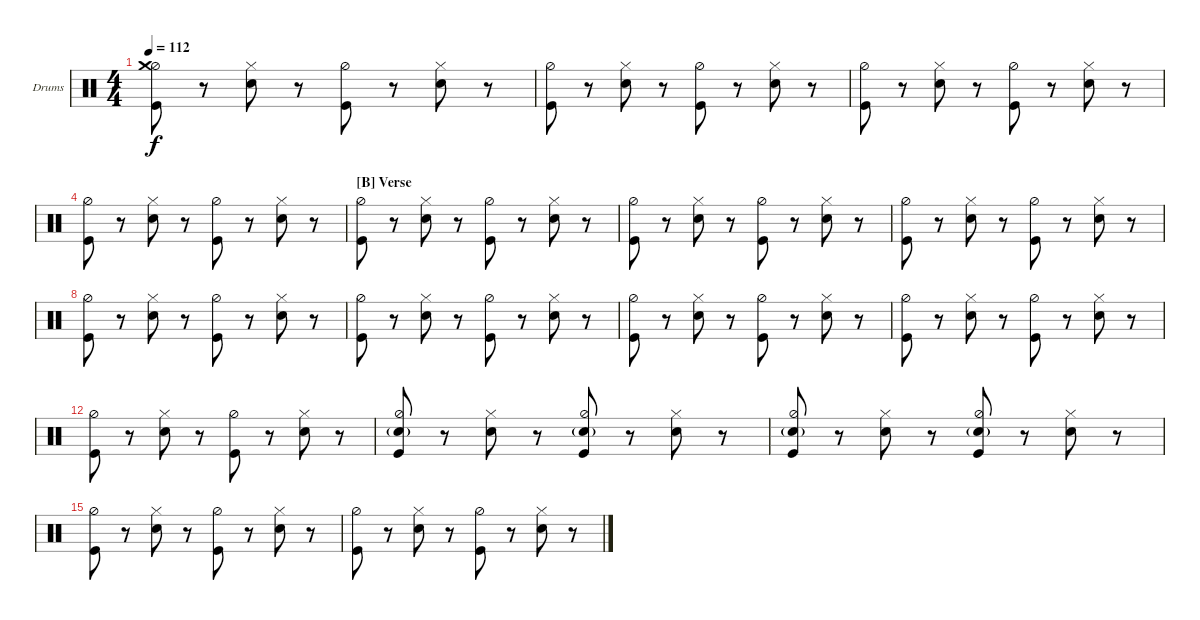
\bracketExtendMode nobrackets
\firstSystemTrackNameOrientation horizontal
\otherSystemsTrackNameOrientation horizontal
\defaultBarNumberDisplay FirstOfSystem
\track ("Drumkit" "Drums") {instrument percussion}
\staff {score}
\articulation defaults
\ts (4 4)
\tempo 112
\clef neutral
\ks c
("Kick (hit)" "Hi-Hat (half)" "Crash medium (hit)").8{dy f} r.8 ("Snare (hit) 2" "Hi-Hat (closed)").8 r.8 ("Kick (hit)" "Hi-Hat (half)").8 r.8 ("Snare (hit) 2" "Hi-Hat (closed)").8 r.8 |
("Kick (hit)" "Hi-Hat (half)").8 r.8 ("Snare (hit) 2" "Hi-Hat (closed)").8 r.8 ("Kick (hit)" "Hi-Hat (half)").8 r.8 ("Snare (hit) 2" "Hi-Hat (closed)").8 r.8 |
("Kick (hit)" "Hi-Hat (half)").8 r.8 ("Snare (hit) 2" "Hi-Hat (closed)").8 r.8 ("Kick (hit)" "Hi-Hat (half)").8 r.8 ("Snare (hit) 2" "Hi-Hat (closed)").8 r.8 |
("Kick (hit)" "Hi-Hat (half)").8 r.8 ("Snare (hit) 2" "Hi-Hat (closed)").8 r.8 ("Kick (hit)" "Hi-Hat (half)").8 r.8 ("Snare (hit) 2" "Hi-Hat (closed)").8 r.8 |
\section ("B" "Verse")
\scale
0.333333 ("Kick (hit)" "Hi-Hat (half)").8 r.8 ("Snare (hit) 2" "Hi-Hat (closed)").8 r.8 ("Kick (hit)" "Hi-Hat (half)").8 r.8 ("Snare (hit) 2" "Hi-Hat (closed)").8 r.8 |
("Kick (hit)" "Hi-Hat (half)").8 r.8 ("Snare (hit) 2" "Hi-Hat (closed)").8 r.8 ("Kick (hit)" "Hi-Hat (half)").8 r.8 ("Snare (hit) 2" "Hi-Hat (closed)").8 r.8 |
("Kick (hit)" "Hi-Hat (half)").8 r.8 ("Snare (hit) 2" "Hi-Hat (closed)").8 r.8 ("Kick (hit)" "Hi-Hat (half)").8 r.8 ("Snare (hit) 2" "Hi-Hat (closed)").8 r.8 |
("Kick (hit)" "Hi-Hat (half)").8 r.8 ("Snare (hit) 2" "Hi-Hat (closed)").8 r.8 ("Kick (hit)" "Hi-Hat (half)").8 r.8 ("Snare (hit) 2" "Hi-Hat (closed)").8 r.8 |
("Kick (hit)" "Hi-Hat (half)").8 r.8 ("Snare (hit) 2" "Hi-Hat (closed)").8 r.8 ("Kick (hit)" "Hi-Hat (half)").8 r.8 ("Snare (hit) 2" "Hi-Hat (closed)").8 r.8 |
("Kick (hit)" "Hi-Hat (half)").8 r.8 ("Snare (hit) 2" "Hi-Hat (closed)").8 r.8 ("Kick (hit)" "Hi-Hat (half)").8 r.8 ("Snare (hit) 2" "Hi-Hat (closed)").8 r.8 |
("Kick (hit)" "Hi-Hat (half)").8 r.8 ("Snare (hit) 2" "Hi-Hat (closed)").8 r.8 ("Kick (hit)" "Hi-Hat (half)").8 r.8 ("Snare (hit) 2" "Hi-Hat (closed)").8 r.8 |
("Kick (hit)" "Hi-Hat (half)").8 r.8 ("Snare (hit) 2" "Hi-Hat (closed)").8 r.8 ("Kick (hit)" "Hi-Hat (half)").8 r.8 ("Snare (hit) 2" "Hi-Hat (closed)").8 r.8 |
\scale
0.333333 ("Kick (hit)" "Hi-Hat (half)" "Snare (hit) 2"{g}).8 r.8 ("Snare (hit) 2" "Hi-Hat (closed)").8 r.8 ("Kick (hit)" "Hi-Hat (half)" "Snare (hit) 2"{g}).8 r.8 ("Snare (hit) 2" "Hi-Hat (closed)").8 r.8 |
\scale
0.333333 ("Kick (hit)" "Hi-Hat (half)" "Snare (hit) 2"{g}).8 r.8 ("Snare (hit) 2" "Hi-Hat (closed)").8 r.8 ("Kick (hit)" "Hi-Hat (half)" "Snare (hit) 2"{g}).8 r.8 ("Snare (hit) 2" "Hi-Hat (closed)").8 r.8 |
\scale
0.333333 ("Kick (hit)" "Hi-Hat (half)").8 r.8 ("Snare (hit) 2" "Hi-Hat (closed)").8 r.8 ("Kick (hit)" "Hi-Hat (half)").8 r.8 ("Snare (hit) 2" "Hi-Hat (closed)").8 r.8 |
\scale
0.333333 ("Kick (hit)" "Hi-Hat (half)").8 r.8 ("Snare (hit) 2" "Hi-Hat (closed)").8 r.8 ("Kick (hit)" "Hi-Hat (half)").8 r.8 ("Snare (hit) 2" "Hi-Hat (closed)").8 r.8
